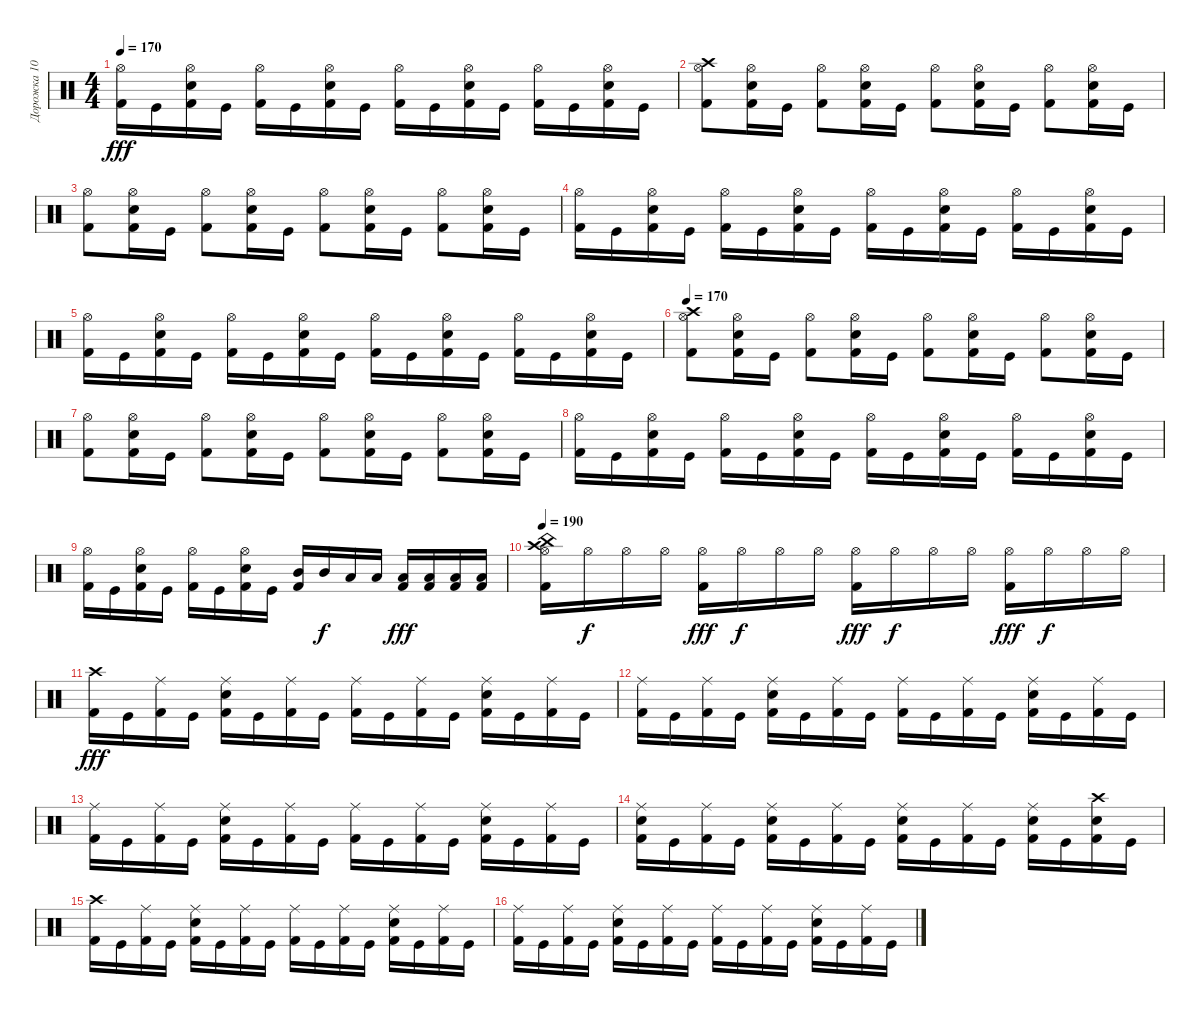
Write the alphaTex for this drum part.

\track ("Дорожка 10" "Дорожка 10") {instrument percussion}
\staff {score}
\articulation defaults
\ts (4 4)
\tempo 170
\clef neutral
\ks c
("Kick (hit) 2" "Hi-Hat (open)").16{dy fff} "Kick (hit)".16 ("Electric Snare (hit)" "Kick (hit) 2" "Hi-Hat (open)").16 "Kick (hit)".16 ("Hi-Hat (open)" "Kick (hit) 2").16 "Kick (hit)".16 ("Electric Snare (hit)" "Kick (hit) 2" "Hi-Hat (open)").16 "Kick (hit)".16 ("Hi-Hat (open)" "Kick (hit) 2").16 "Kick (hit)".16 ("Electric Snare (hit)" "Hi-Hat (open)" "Kick (hit) 2").16 "Kick (hit)".16 ("Hi-Hat (open)" "Kick (hit) 2").16 "Kick (hit)".16 ("Hi-Hat (open)" "Kick (hit) 2" "Electric Snare (hit)").16 "Kick (hit)".16 |
("Kick (hit) 2" "Hi-Hat (open)" "Crash high (hit)").8 ("Kick (hit) 2" "Hi-Hat (open)" "Electric Snare (hit)").16 "Kick (hit)".16 ("Kick (hit) 2" "Hi-Hat (open)").8 ("Electric Snare (hit)" "Hi-Hat (open)" "Kick (hit) 2").16 "Kick (hit)".16 ("Hi-Hat (open)" "Kick (hit) 2").8 ("Kick (hit) 2" "Hi-Hat (open)" "Electric Snare (hit)").16 "Kick (hit)".16 ("Kick (hit) 2" "Hi-Hat (open)").8 ("Electric Snare (hit)" "Kick (hit) 2" "Hi-Hat (open)").16 "Kick (hit)".16 |
("Kick (hit) 2" "Hi-Hat (open)").8 ("Hi-Hat (open)" "Kick (hit) 2" "Electric Snare (hit)").16 "Kick (hit)".16 ("Hi-Hat (open)" "Kick (hit) 2").8 ("Electric Snare (hit)" "Hi-Hat (open)" "Kick (hit) 2").16 "Kick (hit)".16 ("Kick (hit) 2" "Hi-Hat (open)").8 ("Electric Snare (hit)" "Kick (hit) 2" "Hi-Hat (open)").16 "Kick (hit)".16 ("Kick (hit) 2" "Hi-Hat (open)").8 ("Hi-Hat (open)" "Electric Snare (hit)" "Kick (hit) 2").16 "Kick (hit)".16 |
("Kick (hit) 2" "Hi-Hat (open)").16 "Kick (hit)".16 ("Hi-Hat (open)" "Electric Snare (hit)" "Kick (hit) 2").16 "Kick (hit)".16 ("Kick (hit) 2" "Hi-Hat (open)").16 "Kick (hit)".16 ("Hi-Hat (open)" "Electric Snare (hit)" "Kick (hit) 2").16 "Kick (hit)".16 ("Kick (hit) 2" "Hi-Hat (open)").16 "Kick (hit)".16 ("Kick (hit) 2" "Hi-Hat (open)" "Electric Snare (hit)").16 "Kick (hit)".16 ("Hi-Hat (open)" "Kick (hit) 2").16 "Kick (hit)".16 ("Electric Snare (hit)" "Hi-Hat (open)" "Kick (hit) 2").16 "Kick (hit)".16 |
("Hi-Hat (open)" "Kick (hit) 2").16 "Kick (hit)".16 ("Hi-Hat (open)" "Kick (hit) 2" "Electric Snare (hit)").16 "Kick (hit)".16 ("Kick (hit) 2" "Hi-Hat (open)").16 "Kick (hit)".16 ("Kick (hit) 2" "Electric Snare (hit)" "Hi-Hat (open)").16 "Kick (hit)".16 ("Kick (hit) 2" "Hi-Hat (open)").16 "Kick (hit)".16 ("Electric Snare (hit)" "Kick (hit) 2" "Hi-Hat (open)").16 "Kick (hit)".16 ("Kick (hit) 2" "Hi-Hat (open)").16 "Kick (hit)".16 ("Electric Snare (hit)" "Hi-Hat (open)" "Kick (hit) 2").16 "Kick (hit)".16 |
\tempo 170
("Hi-Hat (open)" "Kick (hit) 2" "Crash high (hit)").8 ("Hi-Hat (open)" "Kick (hit) 2" "Electric Snare (hit)").16 "Kick (hit)".16 ("Kick (hit) 2" "Hi-Hat (open)").8 ("Electric Snare (hit)" "Kick (hit) 2" "Hi-Hat (open)").16 "Kick (hit)".16 ("Kick (hit) 2" "Hi-Hat (open)").8 ("Kick (hit) 2" "Electric Snare (hit)" "Hi-Hat (open)").16 "Kick (hit)".16 ("Hi-Hat (open)" "Kick (hit) 2").8 ("Electric Snare (hit)" "Hi-Hat (open)" "Kick (hit) 2").16 "Kick (hit)".16 |
("Kick (hit) 2" "Hi-Hat (open)").8 ("Kick (hit) 2" "Electric Snare (hit)" "Hi-Hat (open)").16 "Kick (hit)".16 ("Kick (hit) 2" "Hi-Hat (open)").8 ("Hi-Hat (open)" "Kick (hit) 2" "Electric Snare (hit)").16 "Kick (hit)".16 ("Hi-Hat (open)" "Kick (hit) 2").8 ("Hi-Hat (open)" "Electric Snare (hit)" "Kick (hit) 2").16 "Kick (hit)".16 ("Hi-Hat (open)" "Kick (hit) 2").8 ("Kick (hit) 2" "Electric Snare (hit)" "Hi-Hat (open)").16 "Kick (hit)".16 |
("Kick (hit) 2" "Hi-Hat (open)").16 "Kick (hit)".16 ("Kick (hit) 2" "Electric Snare (hit)" "Hi-Hat (open)").16 "Kick (hit)".16 ("Kick (hit) 2" "Hi-Hat (open)").16 "Kick (hit)".16 ("Kick (hit) 2" "Electric Snare (hit)" "Hi-Hat (open)").16 "Kick (hit)".16 ("Hi-Hat (open)" "Kick (hit) 2").16 "Kick (hit)".16 ("Kick (hit) 2" "Hi-Hat (open)" "Electric Snare (hit)").16 "Kick (hit)".16 ("Hi-Hat (open)" "Kick (hit) 2").16 "Kick (hit)".16 ("Hi-Hat (open)" "Electric Snare (hit)" "Kick (hit) 2").16 "Kick (hit)".16 |
("Kick (hit) 2" "Hi-Hat (open)").16 "Kick (hit)".16 ("Hi-Hat (open)" "Electric Snare (hit)" "Kick (hit) 2").16 "Kick (hit)".16 ("Hi-Hat (open)" "Kick (hit) 2").16 "Kick (hit)".16 ("Kick (hit) 2" "Electric Snare (hit)" "Hi-Hat (open)").16 "Kick (hit)".16 ("Kick (hit) 2" "Mid Tom (hit)").16 "Mid Tom (hit)".16{dy f} "Low Tom (hit)".16 "Low Tom (hit)".16 ("Kick (hit) 2" "Low Floor Tom (hit)").16{dy fff} ("Low Floor Tom (hit)" "Kick (hit) 2").16 ("Low Floor Tom (hit)" "Kick (hit) 2").16 ("Kick (hit) 2" "Low Floor Tom (hit)").16 |
\tempo 190
("Kick (hit) 2" "Crash high (hit)" "China (hit)" "Hi-Hat (open)").16 "Hi-Hat (open)".16{dy f} "Hi-Hat (open)".16 "Hi-Hat (open)".16 ("Hi-Hat (open)" "Kick (hit) 2").16{dy fff} "Hi-Hat (open)".16{dy f} "Hi-Hat (open)".16 "Hi-Hat (open)".16 ("Hi-Hat (open)" "Kick (hit) 2").16{dy fff} "Hi-Hat (open)".16{dy f} "Hi-Hat (open)".16 "Hi-Hat (open)".16 ("Hi-Hat (open)" "Kick (hit) 2").16{dy fff} "Hi-Hat (open)".16{dy f} "Hi-Hat (open)".16 "Hi-Hat (open)".16 |
("Crash high (hit)" "Kick (hit) 2").16{dy fff} "Kick (hit)".16 ("Ride (middle)" "Kick (hit) 2").16 "Kick (hit)".16 ("Kick (hit) 2" "Ride (middle)" "Electric Snare (hit)").16 "Kick (hit)".16 ("Kick (hit) 2" "Ride (middle)").16 "Kick (hit)".16 ("Kick (hit) 2" "Ride (middle)").16 "Kick (hit)".16 ("Kick (hit) 2" "Ride (middle)").16 "Kick (hit)".16 ("Kick (hit) 2" "Ride (middle)" "Electric Snare (hit)").16 "Kick (hit)".16 ("Ride (middle)" "Kick (hit) 2").16 "Kick (hit)".16 |
("Kick (hit) 2" "Ride (middle)").16 "Kick (hit)".16 ("Kick (hit) 2" "Ride (middle)").16 "Kick (hit)".16 ("Electric Snare (hit)" "Ride (middle)" "Kick (hit) 2").16 "Kick (hit)".16 ("Ride (middle)" "Kick (hit) 2").16 "Kick (hit)".16 ("Kick (hit) 2" "Ride (middle)").16 "Kick (hit)".16 ("Ride (middle)" "Kick (hit) 2").16 "Kick (hit)".16 ("Electric Snare (hit)" "Kick (hit) 2" "Ride (middle)").16 "Kick (hit)".16 ("Ride (middle)" "Kick (hit) 2").16 "Kick (hit)".16 |
("Kick (hit) 2" "Ride (middle)").16 "Kick (hit)".16 ("Kick (hit) 2" "Ride (middle)").16 "Kick (hit)".16 ("Electric Snare (hit)" "Kick (hit) 2" "Ride (middle)").16 "Kick (hit)".16 ("Ride (middle)" "Kick (hit) 2").16 "Kick (hit)".16 ("Ride (middle)" "Kick (hit) 2").16 "Kick (hit)".16 ("Kick (hit) 2" "Ride (middle)").16 "Kick (hit)".16 ("Ride (middle)" "Electric Snare (hit)" "Kick (hit) 2").16 "Kick (hit)".16 ("Ride (middle)" "Kick (hit) 2").16 "Kick (hit)".16 |
("Ride (middle)" "Electric Snare (hit)" "Kick (hit) 2").16 "Kick (hit)".16 ("Kick (hit) 2" "Ride (middle)").16 "Kick (hit)".16 ("Ride (middle)" "Electric Snare (hit)" "Kick (hit) 2").16 "Kick (hit)".16 ("Kick (hit) 2" "Ride (middle)").16 "Kick (hit)".16 ("Electric Snare (hit)" "Kick (hit) 2" "Ride (middle)").16 "Kick (hit)".16 ("Ride (middle)" "Kick (hit) 2").16 "Kick (hit)".16 ("Electric Snare (hit)" "Kick (hit) 2" "Ride (middle)").16 "Kick (hit)".16 ("Electric Snare (hit)" "Kick (hit) 2" "Crash high (hit)").16 "Kick (hit)".16 |
("Kick (hit) 2" "Crash high (hit)").16 "Kick (hit)".16 ("Ride (middle)" "Kick (hit) 2").16 "Kick (hit)".16 ("Kick (hit) 2" "Electric Snare (hit)" "Ride (middle)").16 "Kick (hit)".16 ("Ride (middle)" "Kick (hit) 2").16 "Kick (hit)".16 ("Ride (middle)" "Kick (hit) 2").16 "Kick (hit)".16 ("Kick (hit) 2" "Ride (middle)").16 "Kick (hit)".16 ("Ride (middle)" "Electric Snare (hit)" "Kick (hit) 2").16 "Kick (hit)".16 ("Ride (middle)" "Kick (hit) 2").16 "Kick (hit)".16 |
("Kick (hit) 2" "Ride (middle)").16 "Kick (hit)".16 ("Kick (hit) 2" "Ride (middle)").16 "Kick (hit)".16 ("Kick (hit) 2" "Electric Snare (hit)" "Ride (middle)").16 "Kick (hit)".16 ("Ride (middle)" "Kick (hit) 2").16 "Kick (hit)".16 ("Kick (hit) 2" "Ride (middle)").16 "Kick (hit)".16 ("Ride (middle)" "Kick (hit) 2").16 "Kick (hit)".16 ("Kick (hit) 2" "Ride (middle)" "Electric Snare (hit)").16 "Kick (hit)".16 ("Ride (middle)" "Kick (hit) 2").16 "Kick (hit)".16
